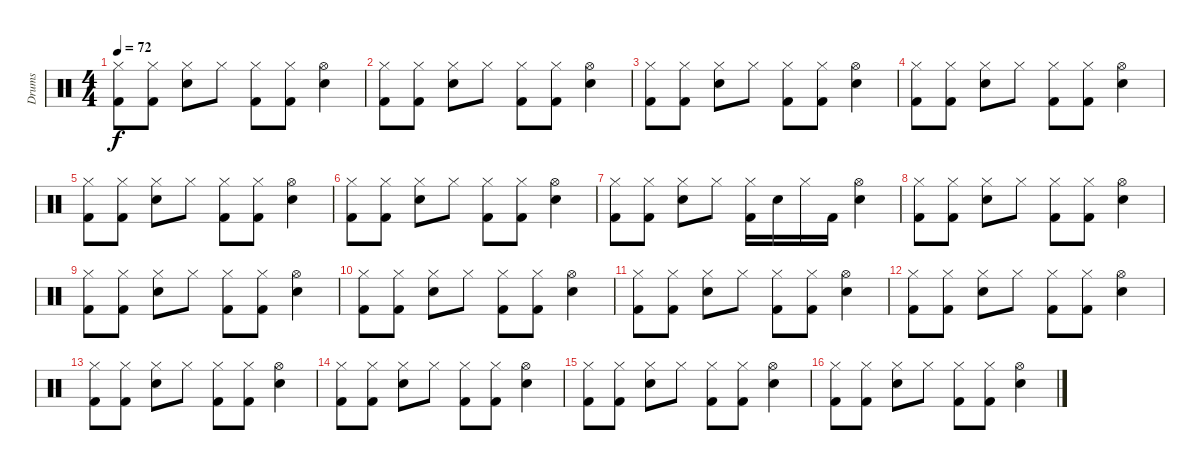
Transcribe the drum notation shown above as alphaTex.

\track ("Drums" "Drums") {instrument percussion}
\staff {score}
\articulation defaults
\ts (4 4)
\tempo 72
\clef neutral
\ks c
("Hi-Hat (closed)" "Kick (hit) 2").8{dy f} ("Hi-Hat (closed)" "Kick (hit) 2").8 ("Hi-Hat (closed)" "Electric Snare (hit)").8 "Hi-Hat (closed)".8 ("Hi-Hat (closed)" "Kick (hit) 2").8 ("Hi-Hat (closed)" "Kick (hit) 2").8 ("Hi-Hat (open)" "Electric Snare (hit)").4 |
("Hi-Hat (closed)" "Kick (hit) 2").8 ("Hi-Hat (closed)" "Kick (hit) 2").8 ("Hi-Hat (closed)" "Electric Snare (hit)").8 "Hi-Hat (closed)".8 ("Hi-Hat (closed)" "Kick (hit) 2").8 ("Hi-Hat (closed)" "Kick (hit) 2").8 ("Hi-Hat (open)" "Electric Snare (hit)").4 |
("Hi-Hat (closed)" "Kick (hit) 2").8 ("Hi-Hat (closed)" "Kick (hit) 2").8 ("Hi-Hat (closed)" "Electric Snare (hit)").8 "Hi-Hat (closed)".8 ("Hi-Hat (closed)" "Kick (hit) 2").8 ("Hi-Hat (closed)" "Kick (hit) 2").8 ("Hi-Hat (open)" "Electric Snare (hit)").4 |
("Hi-Hat (closed)" "Kick (hit) 2").8 ("Hi-Hat (closed)" "Kick (hit) 2").8 ("Hi-Hat (closed)" "Electric Snare (hit)").8 "Hi-Hat (closed)".8 ("Hi-Hat (closed)" "Kick (hit) 2").8 ("Hi-Hat (closed)" "Kick (hit) 2").8 ("Hi-Hat (open)" "Electric Snare (hit)").4 |
("Hi-Hat (closed)" "Kick (hit) 2").8 ("Hi-Hat (closed)" "Kick (hit) 2").8 ("Hi-Hat (closed)" "Electric Snare (hit)").8 "Hi-Hat (closed)".8 ("Hi-Hat (closed)" "Kick (hit) 2").8 ("Hi-Hat (closed)" "Kick (hit) 2").8 ("Hi-Hat (open)" "Electric Snare (hit)").4 |
("Hi-Hat (closed)" "Kick (hit) 2").8 ("Hi-Hat (closed)" "Kick (hit) 2").8 ("Hi-Hat (closed)" "Electric Snare (hit)").8 "Hi-Hat (closed)".8 ("Hi-Hat (closed)" "Kick (hit) 2").8 ("Hi-Hat (closed)" "Kick (hit) 2").8 ("Hi-Hat (open)" "Electric Snare (hit)").4 |
("Hi-Hat (closed)" "Kick (hit) 2").8 ("Hi-Hat (closed)" "Kick (hit) 2").8 ("Hi-Hat (closed)" "Electric Snare (hit)").8 "Hi-Hat (closed)".8 ("Hi-Hat (closed)" "Kick (hit) 2").16 "Electric Snare (hit)".16 "Hi-Hat (closed)".16 "Kick (hit) 2".16 ("Hi-Hat (open)" "Electric Snare (hit)").4 |
("Hi-Hat (closed)" "Kick (hit) 2").8 ("Hi-Hat (closed)" "Kick (hit) 2").8 ("Hi-Hat (closed)" "Electric Snare (hit)").8 "Hi-Hat (closed)".8 ("Hi-Hat (closed)" "Kick (hit) 2").8 ("Hi-Hat (closed)" "Kick (hit) 2").8 ("Hi-Hat (open)" "Electric Snare (hit)").4 |
("Hi-Hat (closed)" "Kick (hit) 2").8 ("Hi-Hat (closed)" "Kick (hit) 2").8 ("Hi-Hat (closed)" "Electric Snare (hit)").8 "Hi-Hat (closed)".8 ("Hi-Hat (closed)" "Kick (hit) 2").8 ("Hi-Hat (closed)" "Kick (hit) 2").8 ("Hi-Hat (open)" "Electric Snare (hit)").4 |
("Hi-Hat (closed)" "Kick (hit) 2").8 ("Hi-Hat (closed)" "Kick (hit) 2").8 ("Hi-Hat (closed)" "Electric Snare (hit)").8 "Hi-Hat (closed)".8 ("Hi-Hat (closed)" "Kick (hit) 2").8 ("Hi-Hat (closed)" "Kick (hit) 2").8 ("Hi-Hat (open)" "Electric Snare (hit)").4 |
("Hi-Hat (closed)" "Kick (hit) 2").8 ("Hi-Hat (closed)" "Kick (hit) 2").8 ("Hi-Hat (closed)" "Electric Snare (hit)").8 "Hi-Hat (closed)".8 ("Hi-Hat (closed)" "Kick (hit) 2").8 ("Hi-Hat (closed)" "Kick (hit) 2").8 ("Hi-Hat (open)" "Electric Snare (hit)").4 |
("Hi-Hat (closed)" "Kick (hit) 2").8 ("Hi-Hat (closed)" "Kick (hit) 2").8 ("Hi-Hat (closed)" "Electric Snare (hit)").8 "Hi-Hat (closed)".8 ("Hi-Hat (closed)" "Kick (hit) 2").8 ("Hi-Hat (closed)" "Kick (hit) 2").8 ("Hi-Hat (open)" "Electric Snare (hit)").4 |
("Hi-Hat (closed)" "Kick (hit) 2").8 ("Hi-Hat (closed)" "Kick (hit) 2").8 ("Hi-Hat (closed)" "Electric Snare (hit)").8 "Hi-Hat (closed)".8 ("Hi-Hat (closed)" "Kick (hit) 2").8 ("Hi-Hat (closed)" "Kick (hit) 2").8 ("Hi-Hat (open)" "Electric Snare (hit)").4 |
("Hi-Hat (closed)" "Kick (hit) 2").8 ("Hi-Hat (closed)" "Kick (hit) 2").8 ("Hi-Hat (closed)" "Electric Snare (hit)").8 "Hi-Hat (closed)".8 ("Hi-Hat (closed)" "Kick (hit) 2").8 ("Hi-Hat (closed)" "Kick (hit) 2").8 ("Hi-Hat (open)" "Electric Snare (hit)").4 |
("Hi-Hat (closed)" "Kick (hit) 2").8 ("Hi-Hat (closed)" "Kick (hit) 2").8 ("Hi-Hat (closed)" "Electric Snare (hit)").8 "Hi-Hat (closed)".8 ("Hi-Hat (closed)" "Kick (hit) 2").8 ("Hi-Hat (closed)" "Kick (hit) 2").8 ("Hi-Hat (open)" "Electric Snare (hit)").4 |
("Hi-Hat (closed)" "Kick (hit) 2").8 ("Hi-Hat (closed)" "Kick (hit) 2").8 ("Hi-Hat (closed)" "Electric Snare (hit)").8 "Hi-Hat (closed)".8 ("Hi-Hat (closed)" "Kick (hit) 2").8 ("Hi-Hat (closed)" "Kick (hit) 2").8 ("Hi-Hat (open)" "Electric Snare (hit)").4
